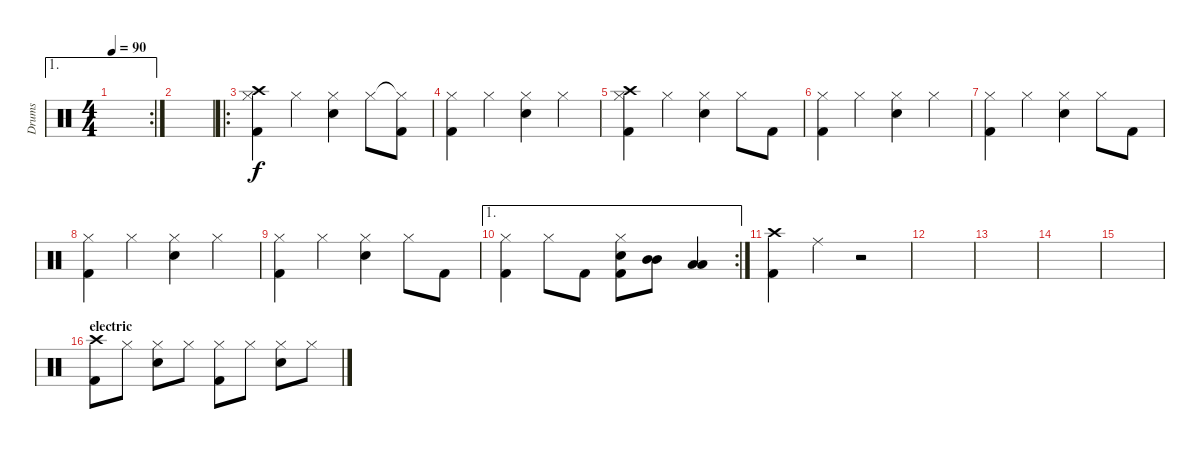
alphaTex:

\track ("Drums" "Drums") {instrument percussion}
\staff {score}
\articulation defaults
\ae 1
\rc 2
\ts (4 4)
\tempo 90
\clef neutral
\ks c
|
|
\ro
("Hi-Hat (closed)" "Kick (hit) 2" "Crash high (hit)").4 "Hi-Hat (closed)".4 ("Hi-Hat (closed)" "Snare (hit) 2").4 "Hi-Hat (closed)".8 ("Hi-Hat (closed)"{t} "Kick (hit) 2").8 |
("Hi-Hat (closed)" "Kick (hit) 2").4 "Hi-Hat (closed)".4 ("Hi-Hat (closed)" "Snare (hit) 2").4 "Hi-Hat (closed)".4 |
("Hi-Hat (closed)" "Kick (hit) 2" "Crash high (hit)").4 "Hi-Hat (closed)".4 ("Hi-Hat (closed)" "Snare (hit) 2").4 "Hi-Hat (closed)".8 "Kick (hit) 2".8 |
("Hi-Hat (closed)" "Kick (hit) 2").4 "Hi-Hat (closed)".4 ("Hi-Hat (closed)" "Snare (hit) 2").4 "Hi-Hat (closed)".4 |
("Hi-Hat (closed)" "Kick (hit) 2").4 "Hi-Hat (closed)".4 ("Hi-Hat (closed)" "Snare (hit) 2").4 "Hi-Hat (closed)".8 "Kick (hit) 2".8 |
("Hi-Hat (closed)" "Kick (hit) 2").4 "Hi-Hat (closed)".4 ("Hi-Hat (closed)" "Snare (hit) 2").4 "Hi-Hat (closed)".4 |
("Hi-Hat (closed)" "Kick (hit) 2").4 "Hi-Hat (closed)".4 ("Hi-Hat (closed)" "Snare (hit) 2").4 "Hi-Hat (closed)".8 "Kick (hit) 2".8 |
\ae 1
\rc 2
("Hi-Hat (closed)" "Kick (hit) 2").4 "Hi-Hat (closed)".8 "Kick (hit) 2".8 ("Hi-Hat (closed)" "Snare (hit) 2" "Kick (hit) 2").8 ("Mid Tom (hit)" "Mid Tom (hit)").8 ("Low Tom (hit)" "Low Tom (hit)").4 |
("Kick (hit) 2" "Crash high (hit)").4 "Ride (middle)".4 r.2 |
|
|
|
|
\section ("" "electric")
("Kick (hit) 2" "Crash high (hit)").8 "Hi-Hat (closed)".8 ("Hi-Hat (closed)" "Snare (hit) 2").8 "Hi-Hat (closed)".8 ("Hi-Hat (closed)" "Kick (hit) 2").8 "Hi-Hat (closed)".8 ("Hi-Hat (closed)" "Snare (hit) 2").8 "Hi-Hat (closed)".8
